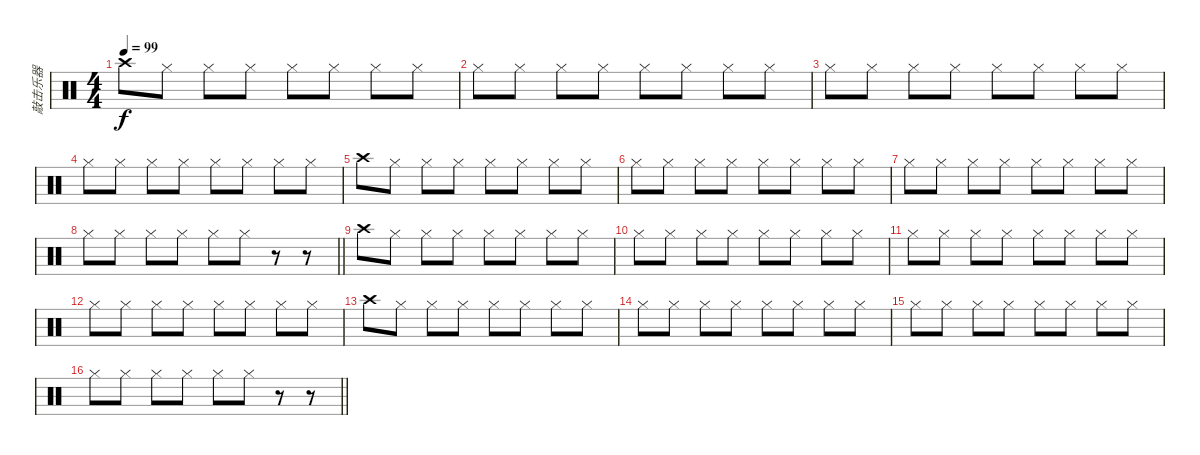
\track ("敲击乐器" "敲击乐器") {instrument percussion}
\staff {score}
\articulation defaults
\ts (4 4)
\tempo 99
\clef neutral
\ks c "Crash high (hit)".8{dy f} "Hi-Hat (closed)".8 "Hi-Hat (closed)".8 "Hi-Hat (closed)".8 "Hi-Hat (closed)".8 "Hi-Hat (closed)".8 "Hi-Hat (closed)".8 "Hi-Hat (closed)".8
|
"Hi-Hat (closed)".8 "Hi-Hat (closed)".8 "Hi-Hat (closed)".8 "Hi-Hat (closed)".8 "Hi-Hat (closed)".8 "Hi-Hat (closed)".8 "Hi-Hat (closed)".8 "Hi-Hat (closed)".8 |
"Hi-Hat (closed)".8 "Hi-Hat (closed)".8 "Hi-Hat (closed)".8 "Hi-Hat (closed)".8 "Hi-Hat (closed)".8 "Hi-Hat (closed)".8 "Hi-Hat (closed)".8 "Hi-Hat (closed)".8 |
"Hi-Hat (closed)".8 "Hi-Hat (closed)".8 "Hi-Hat (closed)".8 "Hi-Hat (closed)".8 "Hi-Hat (closed)".8 "Hi-Hat (closed)".8 "Hi-Hat (closed)".8 "Hi-Hat (closed)".8 |
"Crash high (hit)".8 "Hi-Hat (closed)".8 "Hi-Hat (closed)".8 "Hi-Hat (closed)".8 "Hi-Hat (closed)".8 "Hi-Hat (closed)".8 "Hi-Hat (closed)".8 "Hi-Hat (closed)".8 |
"Hi-Hat (closed)".8 "Hi-Hat (closed)".8 "Hi-Hat (closed)".8 "Hi-Hat (closed)".8 "Hi-Hat (closed)".8 "Hi-Hat (closed)".8 "Hi-Hat (closed)".8 "Hi-Hat (closed)".8 |
"Hi-Hat (closed)".8 "Hi-Hat (closed)".8 "Hi-Hat (closed)".8 "Hi-Hat (closed)".8 "Hi-Hat (closed)".8 "Hi-Hat (closed)".8 "Hi-Hat (closed)".8 "Hi-Hat (closed)".8 |
\barLineRight lightlight "Hi-Hat (closed)".8 "Hi-Hat (closed)".8 "Hi-Hat (closed)".8 "Hi-Hat (closed)".8 "Hi-Hat (closed)".8 "Hi-Hat (closed)".8
r.8 r.8 |
"Crash high (hit)".8 "Hi-Hat (closed)".8 "Hi-Hat (closed)".8 "Hi-Hat (closed)".8 "Hi-Hat (closed)".8 "Hi-Hat (closed)".8 "Hi-Hat (closed)".8 "Hi-Hat (closed)".8 |
"Hi-Hat (closed)".8 "Hi-Hat (closed)".8 "Hi-Hat (closed)".8 "Hi-Hat (closed)".8 "Hi-Hat (closed)".8 "Hi-Hat (closed)".8 "Hi-Hat (closed)".8 "Hi-Hat (closed)".8 |
"Hi-Hat (closed)".8 "Hi-Hat (closed)".8 "Hi-Hat (closed)".8 "Hi-Hat (closed)".8 "Hi-Hat (closed)".8 "Hi-Hat (closed)".8 "Hi-Hat (closed)".8 "Hi-Hat (closed)".8 |
"Hi-Hat (closed)".8 "Hi-Hat (closed)".8 "Hi-Hat (closed)".8 "Hi-Hat (closed)".8 "Hi-Hat (closed)".8 "Hi-Hat (closed)".8 "Hi-Hat (closed)".8 "Hi-Hat (closed)".8 |
"Crash high (hit)".8 "Hi-Hat (closed)".8 "Hi-Hat (closed)".8 "Hi-Hat (closed)".8 "Hi-Hat (closed)".8 "Hi-Hat (closed)".8 "Hi-Hat (closed)".8 "Hi-Hat (closed)".8 |
"Hi-Hat (closed)".8 "Hi-Hat (closed)".8 "Hi-Hat (closed)".8 "Hi-Hat (closed)".8 "Hi-Hat (closed)".8 "Hi-Hat (closed)".8 "Hi-Hat (closed)".8 "Hi-Hat (closed)".8 |
"Hi-Hat (closed)".8 "Hi-Hat (closed)".8 "Hi-Hat (closed)".8 "Hi-Hat (closed)".8 "Hi-Hat (closed)".8 "Hi-Hat (closed)".8 "Hi-Hat (closed)".8 "Hi-Hat (closed)".8 |
\barLineRight lightlight "Hi-Hat (closed)".8 "Hi-Hat (closed)".8 "Hi-Hat (closed)".8 "Hi-Hat (closed)".8 "Hi-Hat (closed)".8 "Hi-Hat (closed)".8
r.8 r.8
